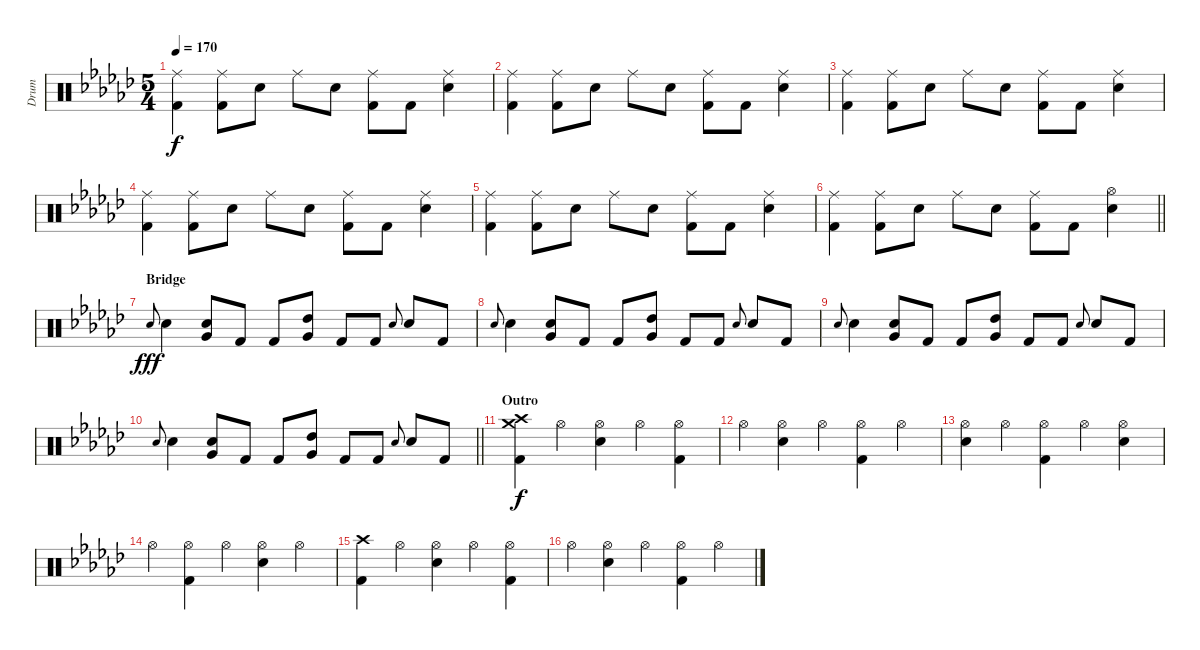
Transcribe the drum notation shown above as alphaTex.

\track ("Drum" "Drum") {instrument percussion}
\staff {score}
\articulation defaults
\ts (5 4)
\tempo 170
\clef neutral
\ks gb
("Ride (middle)" "Kick (hit) 2").4{dy f} ("Ride (middle)" "Kick (hit) 2").8 "Snare (hit) 2".8 "Ride (middle)".8 "Snare (hit) 2".8 ("Ride (middle)" "Kick (hit) 2").8 "Kick (hit) 2".8 ("Ride (middle)" "Snare (hit) 2").4 |
("Ride (middle)" "Kick (hit) 2").4 ("Ride (middle)" "Kick (hit) 2").8 "Snare (hit) 2".8 "Ride (middle)".8 "Snare (hit) 2".8 ("Ride (middle)" "Kick (hit) 2").8 "Kick (hit) 2".8 ("Ride (middle)" "Snare (hit) 2").4 |
("Ride (middle)" "Kick (hit) 2").4 ("Ride (middle)" "Kick (hit) 2").8 "Snare (hit) 2".8 "Ride (middle)".8 "Snare (hit) 2".8 ("Ride (middle)" "Kick (hit) 2").8 "Kick (hit) 2".8 ("Ride (middle)" "Snare (hit) 2").4 |
("Ride (middle)" "Kick (hit) 2").4 ("Ride (middle)" "Kick (hit) 2").8 "Snare (hit) 2".8 "Ride (middle)".8 "Snare (hit) 2".8 ("Ride (middle)" "Kick (hit) 2").8 "Kick (hit) 2".8 ("Ride (middle)" "Snare (hit) 2").4 |
("Ride (middle)" "Kick (hit) 2").4 ("Ride (middle)" "Kick (hit) 2").8 "Snare (hit) 2".8 "Ride (middle)".8 "Snare (hit) 2".8 ("Ride (middle)" "Kick (hit) 2").8 "Kick (hit) 2".8 ("Ride (middle)" "Snare (hit) 2").4 |
\barLineRight lightlight
("Ride (middle)" "Kick (hit) 2").4 ("Ride (middle)" "Kick (hit) 2").8 "Snare (hit) 2".8 "Ride (middle)".8 "Snare (hit) 2".8 ("Ride (middle)" "Kick (hit) 2").8 "Kick (hit) 2".8 ("Hi-Hat (open)" "Snare (hit) 2").4 |
\section ("" "Bridge")
"Snare (hit) 2".8{gr onbeat dy fff} "Snare (hit) 2".4 ("Snare (hit) 2" "Very Low Tom (hit)").8 "Kick (hit) 2".8 "Kick (hit) 2".8 ("High Tom (hit)" "Very Low Tom (hit)").8 "Kick (hit) 2".8 "Kick (hit) 2".8 "Snare (hit) 2".8{gr onbeat} "Snare (hit) 2".8 "Kick (hit) 2".8 |
"Snare (hit) 2".8{gr onbeat} "Snare (hit) 2".4 ("Snare (hit) 2" "Very Low Tom (hit)").8 "Kick (hit) 2".8 "Kick (hit) 2".8 ("High Tom (hit)" "Very Low Tom (hit)").8 "Kick (hit) 2".8 "Kick (hit) 2".8 "Snare (hit) 2".8{gr onbeat} "Snare (hit) 2".8 "Kick (hit) 2".8 |
"Snare (hit) 2".8{gr onbeat} "Snare (hit) 2".4 ("Snare (hit) 2" "Very Low Tom (hit)").8 "Kick (hit) 2".8 "Kick (hit) 2".8 ("High Tom (hit)" "Very Low Tom (hit)").8 "Kick (hit) 2".8 "Kick (hit) 2".8 "Snare (hit) 2".8{gr onbeat} "Snare (hit) 2".8 "Kick (hit) 2".8 |
\barLineRight lightlight "Snare (hit) 2".8{gr onbeat} "Snare (hit) 2".4
("Snare (hit) 2" "Very Low Tom (hit)").8 "Kick (hit) 2".8 "Kick (hit) 2".8 ("High Tom (hit)" "Very Low Tom (hit)").8 "Kick (hit) 2".8 "Kick (hit) 2".8 "Snare (hit) 2".8{gr onbeat} "Snare (hit) 2".8 "Kick (hit) 2".8 |
\section ("" "Outro")
("Crash high (hit)" "Crash medium (hit)" "Kick (hit) 2").4{dy f} "Hi-Hat (open)".4 ("Hi-Hat (open)" "Snare (hit) 2").4 "Hi-Hat (open)".4 ("Hi-Hat (open)" "Kick (hit) 2").4 |
"Hi-Hat (open)".4 ("Hi-Hat (open)" "Snare (hit) 2").4 "Hi-Hat (open)".4 ("Hi-Hat (open)" "Kick (hit) 2").4 "Hi-Hat (open)".4 |
("Hi-Hat (open)" "Snare (hit) 2").4 "Hi-Hat (open)".4 ("Hi-Hat (open)" "Kick (hit) 2").4 "Hi-Hat (open)".4 ("Hi-Hat (open)" "Snare (hit) 2").4 |
"Hi-Hat (open)".4 ("Hi-Hat (open)" "Kick (hit) 2").4 "Hi-Hat (open)".4 ("Hi-Hat (open)" "Snare (hit) 2").4 "Hi-Hat (open)".4 |
("Crash high (hit)" "Kick (hit) 2").4 "Hi-Hat (open)".4 ("Hi-Hat (open)" "Snare (hit) 2").4 "Hi-Hat (open)".4 ("Hi-Hat (open)" "Kick (hit) 2").4 |
"Hi-Hat (open)".4 ("Hi-Hat (open)" "Snare (hit) 2").4 "Hi-Hat (open)".4 ("Hi-Hat (open)" "Kick (hit) 2").4 "Hi-Hat (open)".4
